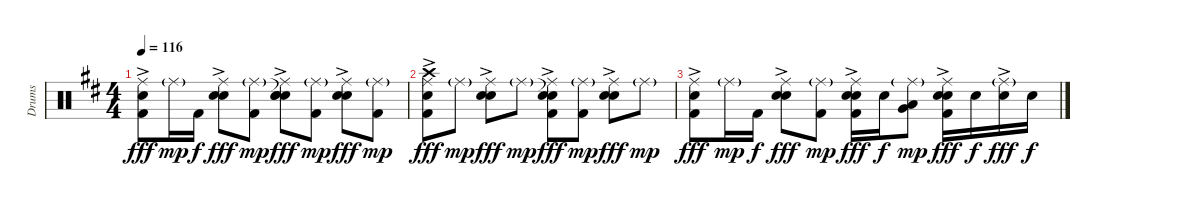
\track ("Drums" "Drums") {instrument percussion}
\staff {score}
\articulation defaults
\ts (4 4)
\tempo 116
\clef neutral
\ks d
("Ride (middle)" "Hand Clap (hit)"{ac} "Kick (hit) 2").8{dy fff} "Ride (middle)"{g}.16{dy mp} "Kick (hit) 2".16{dy f} ("Ride (middle)" "Hand Clap (hit)"{ac} "Snare (hit) 2").8{dy fff} ("Ride (middle)"{g} "Kick (hit) 2").8{dy mp} ("Snare (hit)"{t} "Ride (middle)" "Hand Clap (hit)"{ac} "Snare (hit) 2").8{dy fff} ("Ride (middle)"{g} "Kick (hit) 2").8{dy mp} ("Ride (middle)" "Hand Clap (hit)"{ac} "Snare (hit) 2").8{dy fff} ("Ride (middle)"{g} "Kick (hit) 2").8{dy mp} |
("Crash high (hit)" "Ride (middle)" "Hand Clap (hit)"{ac} "Kick (hit) 2").8{dy fff} "Ride (middle)"{g}.8{dy mp} ("Ride (middle)" "Hand Clap (hit)"{ac} "Snare (hit) 2").8{dy fff} "Ride (middle)"{g}.8{dy mp} ("Snare (hit)"{t} "Ride (middle)" "Hand Clap (hit)"{ac} "Kick (hit) 2").8{dy fff} ("Ride (middle)"{g} "Kick (hit) 2").8{dy mp} ("Ride (middle)" "Hand Clap (hit)"{ac} "Snare (hit) 2").8{dy fff} "Ride (middle)"{g}.8{dy mp} |
("Ride (middle)" "Hand Clap (hit)"{ac} "Kick (hit) 2").8{dy fff} "Ride (middle)"{g}.16{dy mp} "Kick (hit) 2".16{dy f} ("Ride (middle)" "Hand Clap (hit)"{ac} "Snare (hit) 2").8{dy fff} ("Ride (middle)"{g} "Kick (hit) 2").8{dy mp} ("Ride (middle)" "Hand Clap (hit)"{ac} "Snare (hit) 2" "Kick (hit) 2").16{dy fff} "Snare (hit) 2".16{dy f} ("Ride (middle)"{g} "Low Tom (hit)" "Very Low Tom (hit)").8{dy mp} ("Ride (middle)" "Hand Clap (hit)"{ac} "Snare (hit) 2"{ac} "Kick (hit) 2").16{dy fff} "Snare (hit) 2".16{dy f} ("Ride (middle)"{g} "Snare (hit) 2"{ac}).16{dy fff} "Snare (hit) 2".16{dy f}
